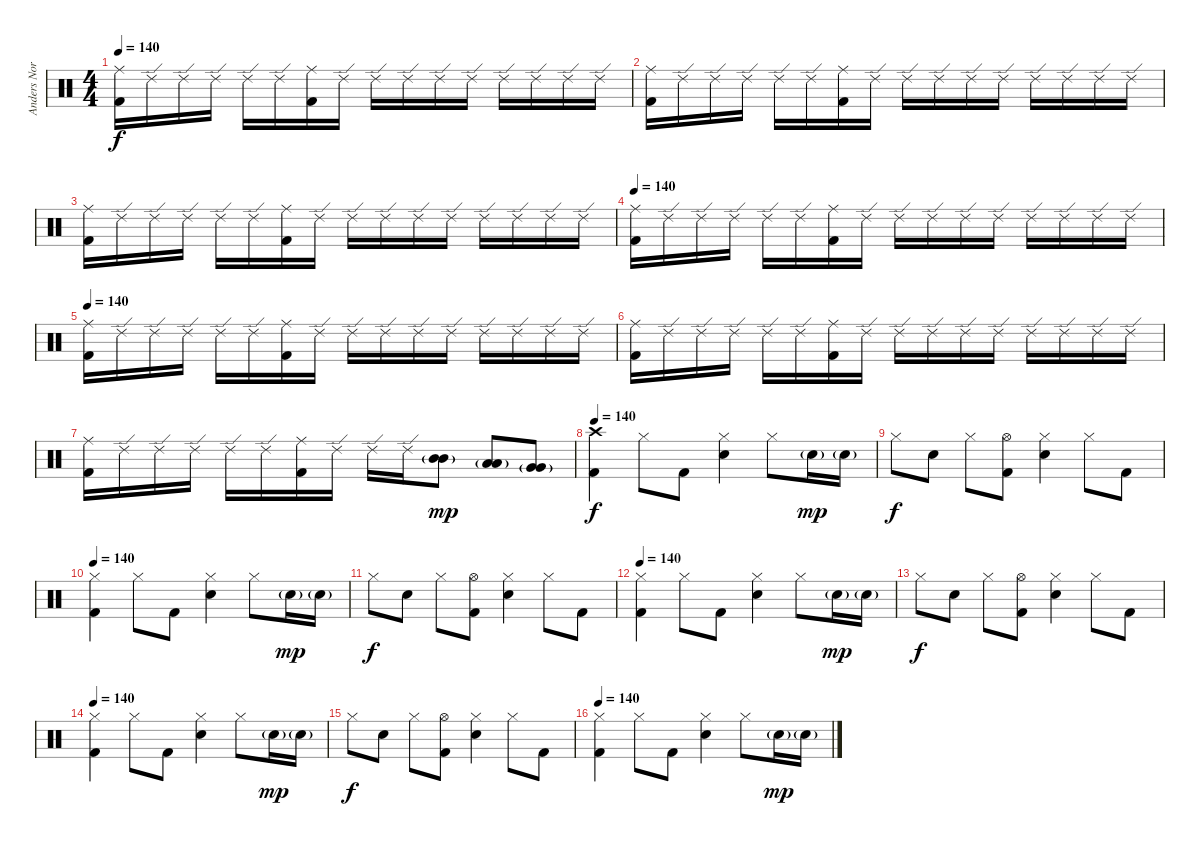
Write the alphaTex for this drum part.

\track ("Anders Nordin" "Anders Nor") {instrument percussion}
\staff {score}
\articulation defaults
\ts (4 4)
\tempo 140
\clef neutral
\ks c
("Kick (hit) 2" "Ride (middle)").16{dy f volume 9} "Ride (edge) 2".16 "Ride (edge) 2".16 "Ride (edge) 2".16 "Ride (edge) 2".16 "Ride (edge) 2".16 ("Kick (hit) 2" "Ride (middle)").16 "Ride (edge) 2".16 "Ride (edge) 2".16 "Ride (edge) 2".16 "Ride (edge) 2".16 "Ride (edge) 2".16 "Ride (edge) 2".16 "Ride (edge) 2".16 "Ride (edge) 2".16 "Ride (edge) 2".16 |
("Kick (hit) 2" "Ride (middle)").16{volume 9} "Ride (edge) 2".16 "Ride (edge) 2".16 "Ride (edge) 2".16 "Ride (edge) 2".16 "Ride (edge) 2".16 ("Kick (hit) 2" "Ride (middle)").16 "Ride (edge) 2".16 "Ride (edge) 2".16 "Ride (edge) 2".16 "Ride (edge) 2".16 "Ride (edge) 2".16 "Ride (edge) 2".16 "Ride (edge) 2".16 "Ride (edge) 2".16 "Ride (edge) 2".16 |
("Kick (hit) 2" "Ride (middle)").16{volume 9} "Ride (edge) 2".16 "Ride (edge) 2".16 "Ride (edge) 2".16 "Ride (edge) 2".16 "Ride (edge) 2".16 ("Kick (hit) 2" "Ride (middle)").16 "Ride (edge) 2".16 "Ride (edge) 2".16 "Ride (edge) 2".16 "Ride (edge) 2".16 "Ride (edge) 2".16 "Ride (edge) 2".16 "Ride (edge) 2".16 "Ride (edge) 2".16 "Ride (edge) 2".16 |
\tempo 140
("Kick (hit) 2" "Ride (middle)").16{volume 9} "Ride (edge) 2".16 "Ride (edge) 2".16 "Ride (edge) 2".16 "Ride (edge) 2".16 "Ride (edge) 2".16 ("Kick (hit) 2" "Ride (middle)").16 "Ride (edge) 2".16 "Ride (edge) 2".16 "Ride (edge) 2".16 "Ride (edge) 2".16 "Ride (edge) 2".16 "Ride (edge) 2".16 "Ride (edge) 2".16 "Ride (edge) 2".16 "Ride (edge) 2".16 |
\tempo 140
("Kick (hit) 2" "Ride (middle)").16{volume 9} "Ride (edge) 2".16 "Ride (edge) 2".16 "Ride (edge) 2".16 "Ride (edge) 2".16 "Ride (edge) 2".16 ("Kick (hit) 2" "Ride (middle)").16 "Ride (edge) 2".16 "Ride (edge) 2".16 "Ride (edge) 2".16 "Ride (edge) 2".16 "Ride (edge) 2".16 "Ride (edge) 2".16 "Ride (edge) 2".16 "Ride (edge) 2".16 "Ride (edge) 2".16 |
("Kick (hit) 2" "Ride (middle)").16{volume 9} "Ride (edge) 2".16 "Ride (edge) 2".16 "Ride (edge) 2".16 "Ride (edge) 2".16 "Ride (edge) 2".16 ("Kick (hit) 2" "Ride (middle)").16 "Ride (edge) 2".16 "Ride (edge) 2".16 "Ride (edge) 2".16 "Ride (edge) 2".16 "Ride (edge) 2".16 "Ride (edge) 2".16 "Ride (edge) 2".16 "Ride (edge) 2".16 "Ride (edge) 2".16 |
("Kick (hit) 2" "Ride (middle)").16{volume 9} "Ride (edge) 2".16 "Ride (edge) 2".16 "Ride (edge) 2".16 "Ride (edge) 2".16 "Ride (edge) 2".16 ("Kick (hit) 2" "Ride (middle)").16 "Ride (edge) 2".16 "Ride (edge) 2".16 "Ride (edge) 2".16 ("Mid Tom (hit)" "Mid Tom (hit)"{g}).8{dy mp} ("Low Tom (hit)" "Low Tom (hit)"{g}).8 ("Very Low Tom (hit)" "Very Low Tom (hit)"{g}).8 |
\tempo 140
("Kick (hit) 2" "Crash high (hit)").4{dy f volume 10} "Hi-Hat (closed)".8 "Kick (hit) 2".8 ("Electric Snare (hit)" "Hi-Hat (closed)").4 "Hi-Hat (closed)".8 "Electric Snare (hit)"{g}.16{dy mp} "Electric Snare (hit)"{g}.16 |
"Hi-Hat (closed)".8{dy f} "Electric Snare (hit)".8 "Hi-Hat (closed)".8 ("Kick (hit) 2" "Hi-Hat (open)").8 ("Electric Snare (hit)" "Hi-Hat (closed)").4 "Hi-Hat (closed)".8 "Kick (hit) 2".8 |
\tempo 140
("Kick (hit) 2" "Hi-Hat (closed)").4{volume 10} "Hi-Hat (closed)".8 "Kick (hit) 2".8 ("Electric Snare (hit)" "Hi-Hat (closed)").4 "Hi-Hat (closed)".8 "Electric Snare (hit)"{g}.16{dy mp} "Electric Snare (hit)"{g}.16 |
"Hi-Hat (closed)".8{dy f} "Electric Snare (hit)".8 "Hi-Hat (closed)".8 ("Kick (hit) 2" "Hi-Hat (open)").8 ("Electric Snare (hit)" "Hi-Hat (closed)").4 "Hi-Hat (closed)".8 "Kick (hit) 2".8 |
\tempo 140
("Kick (hit) 2" "Hi-Hat (closed)").4{volume 10} "Hi-Hat (closed)".8 "Kick (hit) 2".8 ("Electric Snare (hit)" "Hi-Hat (closed)").4 "Hi-Hat (closed)".8 "Electric Snare (hit)"{g}.16{dy mp} "Electric Snare (hit)"{g}.16 |
"Hi-Hat (closed)".8{dy f} "Electric Snare (hit)".8 "Hi-Hat (closed)".8 ("Kick (hit) 2" "Hi-Hat (open)").8 ("Electric Snare (hit)" "Hi-Hat (closed)").4 "Hi-Hat (closed)".8 "Kick (hit) 2".8 |
\tempo 140
("Kick (hit) 2" "Hi-Hat (closed)").4{volume 10} "Hi-Hat (closed)".8 "Kick (hit) 2".8 ("Electric Snare (hit)" "Hi-Hat (closed)").4 "Hi-Hat (closed)".8 "Electric Snare (hit)"{g}.16{dy mp} "Electric Snare (hit)"{g}.16 |
"Hi-Hat (closed)".8{dy f} "Electric Snare (hit)".8 "Hi-Hat (closed)".8 ("Kick (hit) 2" "Hi-Hat (open)").8 ("Electric Snare (hit)" "Hi-Hat (closed)").4 "Hi-Hat (closed)".8 "Kick (hit) 2".8 |
\tempo 140
("Kick (hit) 2" "Hi-Hat (closed)").4{volume 10} "Hi-Hat (closed)".8 "Kick (hit) 2".8 ("Electric Snare (hit)" "Hi-Hat (closed)").4 "Hi-Hat (closed)".8 "Electric Snare (hit)"{g}.16{dy mp} "Electric Snare (hit)"{g}.16
